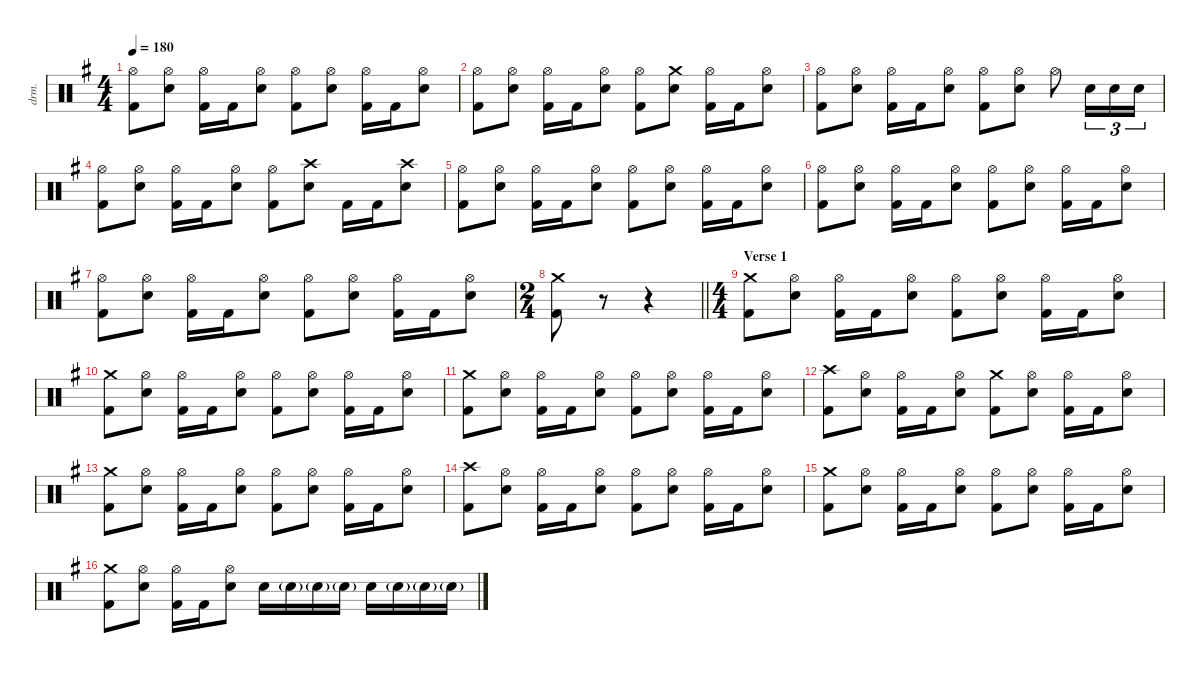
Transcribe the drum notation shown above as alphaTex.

\defaultSystemsLayout 4
\hideDynamics
\bracketExtendMode nobrackets
\otherSystemsTrackNameOrientation horizontal
\track ("Lars Ulrich" "drm.") {instrument percussion}
\staff {score}
\articulation defaults
\ts (4 4)
\tempo 180
\clef neutral
\ks eminor
("Hi-Hat (open)"{acc forcenatural} "Kick (hit) 2"{acc forcenatural}).8{dy f beam Down} ("Hi-Hat (open)"{acc forcenatural} "Snare (hit) 2"{acc forcenatural}).8{beam Down} ("Hi-Hat (open)"{acc forcenatural} "Kick (hit) 2"{acc forcenatural}).16{beam Down} "Kick (hit) 2"{acc forcenatural}.16{beam Down} ("Hi-Hat (open)"{acc forcenatural} "Snare (hit) 2"{acc forcenatural}).8{beam Down} ("Hi-Hat (open)"{acc forcenatural} "Kick (hit) 2"{acc forcenatural}).8{beam Down} ("Hi-Hat (open)"{acc forcenatural} "Snare (hit) 2"{acc forcenatural}).8{beam Down} ("Hi-Hat (open)"{acc forcenatural} "Kick (hit) 2"{acc forcenatural}).16{beam Down} "Kick (hit) 2"{acc forcenatural}.16{beam Down} ("Hi-Hat (open)"{acc forcenatural} "Snare (hit) 2"{acc forcenatural}).8{beam Down} |
("Hi-Hat (open)"{acc forcenatural} "Kick (hit) 2"{acc forcenatural}).8{beam Down} ("Hi-Hat (open)"{acc forcenatural} "Snare (hit) 2"{acc forcenatural}).8{beam Down} ("Hi-Hat (open)"{acc forcenatural} "Kick (hit) 2"{acc forcenatural}).16{beam Down} "Kick (hit) 2"{acc forcenatural}.16{beam Down} ("Hi-Hat (open)"{acc forcenatural} "Snare (hit) 2"{acc forcenatural}).8{beam Down} ("Hi-Hat (open)"{acc forcenatural} "Kick (hit) 2"{acc forcenatural}).8{beam Down} ("Crash medium (hit)"{acc forcenatural} "Snare (hit) 2"{acc forcenatural}).8{beam Down} ("Hi-Hat (open)"{acc forcenatural} "Kick (hit) 2"{acc forcenatural}).16{beam Down} "Kick (hit) 2"{acc forcenatural}.16{beam Down} ("Hi-Hat (open)"{acc forcenatural} "Snare (hit) 2"{acc forcenatural}).8{beam Down} |
("Hi-Hat (open)"{acc forcenatural} "Kick (hit) 2"{acc forcenatural}).8{beam Down} ("Hi-Hat (open)"{acc forcenatural} "Snare (hit) 2"{acc forcenatural}).8{beam Down} ("Hi-Hat (open)"{acc forcenatural} "Kick (hit) 2"{acc forcenatural}).16{beam Down} "Kick (hit) 2"{acc forcenatural}.16{beam Down} ("Hi-Hat (open)"{acc forcenatural} "Snare (hit) 2"{acc forcenatural}).8{beam Down} ("Hi-Hat (open)"{acc forcenatural} "Kick (hit) 2"{acc forcenatural}).8{beam Down} ("Hi-Hat (open)"{acc forcenatural} "Snare (hit) 2"{acc forcenatural}).8{beam Down} "Hi-Hat (open)"{acc forcenatural}.8{beam Down} "Snare (hit) 2"{acc forcenatural}.16{tu (3 2) beam Down} "Snare (hit) 2"{acc forcenatural}.16{tu (3 2) beam Down} "Snare (hit) 2"{acc forcenatural}.16{tu (3 2) beam Down} |
("Hi-Hat (open)"{acc forcenatural} "Kick (hit) 2"{acc forcenatural}).8{beam Down} ("Hi-Hat (open)"{acc forcenatural} "Snare (hit) 2"{acc forcenatural}).8{beam Down} ("Hi-Hat (open)"{acc forcenatural} "Kick (hit) 2"{acc forcenatural}).16{beam Down} "Kick (hit) 2"{acc forcenatural}.16{beam Down} ("Hi-Hat (open)"{acc forcenatural} "Snare (hit) 2"{acc forcenatural}).8{beam Down} ("Hi-Hat (open)"{acc forcenatural} "Kick (hit) 2"{acc forcenatural}).8{beam Down} ("Crash high (hit)"{acc forcenatural} "Snare (hit) 2"{acc forcenatural}).8{beam Down} "Kick (hit) 2"{acc forcenatural}.16{beam Down} "Kick (hit) 2"{acc forcenatural}.16{beam Down} ("Crash high (hit)"{acc forcenatural} "Snare (hit) 2"{acc forcenatural}).8{beam Down} |
("Hi-Hat (open)"{acc forcenatural} "Kick (hit) 2"{acc forcenatural}).8{beam Down} ("Hi-Hat (open)"{acc forcenatural} "Snare (hit) 2"{acc forcenatural}).8{beam Down} ("Hi-Hat (open)"{acc forcenatural} "Kick (hit) 2"{acc forcenatural}).16{beam Down} "Kick (hit) 2"{acc forcenatural}.16{beam Down} ("Hi-Hat (open)"{acc forcenatural} "Snare (hit) 2"{acc forcenatural}).8{beam Down} ("Hi-Hat (open)"{acc forcenatural} "Kick (hit) 2"{acc forcenatural}).8{beam Down} ("Hi-Hat (open)"{acc forcenatural} "Snare (hit) 2"{acc forcenatural}).8{beam Down} ("Hi-Hat (open)"{acc forcenatural} "Kick (hit) 2"{acc forcenatural}).16{beam Down} "Kick (hit) 2"{acc forcenatural}.16{beam Down} ("Hi-Hat (open)"{acc forcenatural} "Snare (hit) 2"{acc forcenatural}).8{beam Down} |
("Hi-Hat (open)"{acc forcenatural} "Kick (hit) 2"{acc forcenatural}).8{beam Down} ("Hi-Hat (open)"{acc forcenatural} "Snare (hit) 2"{acc forcenatural}).8{beam Down} ("Hi-Hat (open)"{acc forcenatural} "Kick (hit) 2"{acc forcenatural}).16{beam Down} "Kick (hit) 2"{acc forcenatural}.16{beam Down} ("Hi-Hat (open)"{acc forcenatural} "Snare (hit) 2"{acc forcenatural}).8{beam Down} ("Hi-Hat (open)"{acc forcenatural} "Kick (hit) 2"{acc forcenatural}).8{beam Down} ("Hi-Hat (open)"{acc forcenatural} "Snare (hit) 2"{acc forcenatural}).8{beam Down} ("Hi-Hat (open)"{acc forcenatural} "Kick (hit) 2"{acc forcenatural}).16{beam Down} "Kick (hit) 2"{acc forcenatural}.16{beam Down} ("Hi-Hat (open)"{acc forcenatural} "Snare (hit) 2"{acc forcenatural}).8{beam Down} |
("Hi-Hat (open)"{acc forcenatural} "Kick (hit) 2"{acc forcenatural}).8{beam Down} ("Hi-Hat (open)"{acc forcenatural} "Snare (hit) 2"{acc forcenatural}).8{beam Down} ("Hi-Hat (open)"{acc forcenatural} "Kick (hit) 2"{acc forcenatural}).16{beam Down} "Kick (hit) 2"{acc forcenatural}.16{beam Down} ("Hi-Hat (open)"{acc forcenatural} "Snare (hit) 2"{acc forcenatural}).8{beam Down} ("Hi-Hat (open)"{acc forcenatural} "Kick (hit) 2"{acc forcenatural}).8{beam Down} ("Hi-Hat (open)"{acc forcenatural} "Snare (hit) 2"{acc forcenatural}).8{beam Down} ("Hi-Hat (open)"{acc forcenatural} "Kick (hit) 2"{acc forcenatural}).16{beam Down} "Kick (hit) 2"{acc forcenatural}.16{beam Down} ("Hi-Hat (open)"{acc forcenatural} "Snare (hit) 2"{acc forcenatural}).8{beam Down} |
\ts (2 4)
\beaming (8 2 2 2 2)
\barLineRight lightlight
("Crash medium (hit)"{acc forcenatural} "Kick (hit) 2"{acc forcenatural}).8{beam Down} r.8{beam Down} r.4{beam Down} |
\ts (4 4)
\beaming (8 2 2 2 2)
\section ("" "Verse 1")
("Crash medium (hit)"{acc forcenatural} "Kick (hit) 2"{acc forcenatural}).8{beam Down} ("Hi-Hat (open)"{acc forcenatural} "Snare (hit) 2"{acc forcenatural}).8{beam Down} ("Hi-Hat (open)"{acc forcenatural} "Kick (hit) 2"{acc forcenatural}).16{beam Down} "Kick (hit) 2"{acc forcenatural}.16{beam Down} ("Hi-Hat (open)"{acc forcenatural} "Snare (hit) 2"{acc forcenatural}).8{beam Down} ("Hi-Hat (open)"{acc forcenatural} "Kick (hit) 2"{acc forcenatural}).8{beam Down} ("Hi-Hat (open)"{acc forcenatural} "Snare (hit) 2"{acc forcenatural}).8{beam Down} ("Hi-Hat (open)"{acc forcenatural} "Kick (hit) 2"{acc forcenatural}).16{beam Down} "Kick (hit) 2"{acc forcenatural}.16{beam Down} ("Hi-Hat (open)"{acc forcenatural} "Snare (hit) 2"{acc forcenatural}).8{beam Down} |
("Crash medium (hit)"{acc forcenatural} "Kick (hit) 2"{acc forcenatural}).8{beam Down} ("Hi-Hat (open)"{acc forcenatural} "Snare (hit) 2"{acc forcenatural}).8{beam Down} ("Hi-Hat (open)"{acc forcenatural} "Kick (hit) 2"{acc forcenatural}).16{beam Down} "Kick (hit) 2"{acc forcenatural}.16{beam Down} ("Hi-Hat (open)"{acc forcenatural} "Snare (hit) 2"{acc forcenatural}).8{beam Down} ("Hi-Hat (open)"{acc forcenatural} "Kick (hit) 2"{acc forcenatural}).8{beam Down} ("Hi-Hat (open)"{acc forcenatural} "Snare (hit) 2"{acc forcenatural}).8{beam Down} ("Hi-Hat (open)"{acc forcenatural} "Kick (hit) 2"{acc forcenatural}).16{beam Down} "Kick (hit) 2"{acc forcenatural}.16{beam Down} ("Hi-Hat (open)"{acc forcenatural} "Snare (hit) 2"{acc forcenatural}).8{beam Down} |
("Crash medium (hit)"{acc forcenatural} "Kick (hit) 2"{acc forcenatural}).8{beam Down} ("Hi-Hat (open)"{acc forcenatural} "Snare (hit) 2"{acc forcenatural}).8{beam Down} ("Hi-Hat (open)"{acc forcenatural} "Kick (hit) 2"{acc forcenatural}).16{beam Down} "Kick (hit) 2"{acc forcenatural}.16{beam Down} ("Hi-Hat (open)"{acc forcenatural} "Snare (hit) 2"{acc forcenatural}).8{beam Down} ("Hi-Hat (open)"{acc forcenatural} "Kick (hit) 2"{acc forcenatural}).8{beam Down} ("Hi-Hat (open)"{acc forcenatural} "Snare (hit) 2"{acc forcenatural}).8{beam Down} ("Hi-Hat (open)"{acc forcenatural} "Kick (hit) 2"{acc forcenatural}).16{beam Down} "Kick (hit) 2"{acc forcenatural}.16{beam Down} ("Hi-Hat (open)"{acc forcenatural} "Snare (hit) 2"{acc forcenatural}).8{beam Down} |
("Crash high (hit)"{acc forcenatural} "Kick (hit) 2"{acc forcenatural}).8{beam Down} ("Hi-Hat (open)"{acc forcenatural} "Snare (hit) 2"{acc forcenatural}).8{beam Down} ("Hi-Hat (open)"{acc forcenatural} "Kick (hit) 2"{acc forcenatural}).16{beam Down} "Kick (hit) 2"{acc forcenatural}.16{beam Down} ("Hi-Hat (open)"{acc forcenatural} "Snare (hit) 2"{acc forcenatural}).8{beam Down} ("Crash medium (hit)"{acc forcenatural} "Kick (hit) 2"{acc forcenatural}).8{beam Down} ("Hi-Hat (open)"{acc forcenatural} "Snare (hit) 2"{acc forcenatural}).8{beam Down} ("Hi-Hat (open)"{acc forcenatural} "Kick (hit) 2"{acc forcenatural}).16{beam Down} "Kick (hit) 2"{acc forcenatural}.16{beam Down} ("Hi-Hat (open)"{acc forcenatural} "Snare (hit) 2"{acc forcenatural}).8{beam Down} |
("Crash medium (hit)"{acc forcenatural} "Kick (hit) 2"{acc forcenatural}).8{beam Down} ("Hi-Hat (open)"{acc forcenatural} "Snare (hit) 2"{acc forcenatural}).8{beam Down} ("Hi-Hat (open)"{acc forcenatural} "Kick (hit) 2"{acc forcenatural}).16{beam Down} "Kick (hit) 2"{acc forcenatural}.16{beam Down} ("Hi-Hat (open)"{acc forcenatural} "Snare (hit) 2"{acc forcenatural}).8{beam Down} ("Hi-Hat (open)"{acc forcenatural} "Kick (hit) 2"{acc forcenatural}).8{beam Down} ("Hi-Hat (open)"{acc forcenatural} "Snare (hit) 2"{acc forcenatural}).8{beam Down} ("Hi-Hat (open)"{acc forcenatural} "Kick (hit) 2"{acc forcenatural}).16{beam Down} "Kick (hit) 2"{acc forcenatural}.16{beam Down} ("Hi-Hat (open)"{acc forcenatural} "Snare (hit) 2"{acc forcenatural}).8{beam Down} |
("Crash high (hit)"{acc forcenatural} "Kick (hit) 2"{acc forcenatural}).8{beam Down} ("Hi-Hat (open)"{acc forcenatural} "Snare (hit) 2"{acc forcenatural}).8{beam Down} ("Hi-Hat (open)"{acc forcenatural} "Kick (hit) 2"{acc forcenatural}).16{beam Down} "Kick (hit) 2"{acc forcenatural}.16{beam Down} ("Hi-Hat (open)"{acc forcenatural} "Snare (hit) 2"{acc forcenatural}).8{beam Down} ("Hi-Hat (open)"{acc forcenatural} "Kick (hit) 2"{acc forcenatural}).8{beam Down} ("Hi-Hat (open)"{acc forcenatural} "Snare (hit) 2"{acc forcenatural}).8{beam Down} ("Hi-Hat (open)"{acc forcenatural} "Kick (hit) 2"{acc forcenatural}).16{beam Down} "Kick (hit) 2"{acc forcenatural}.16{beam Down} ("Hi-Hat (open)"{acc forcenatural} "Snare (hit) 2"{acc forcenatural}).8{beam Down} |
("Crash medium (hit)"{acc forcenatural} "Kick (hit) 2"{acc forcenatural}).8{beam Down} ("Hi-Hat (open)"{acc forcenatural} "Snare (hit) 2"{acc forcenatural}).8{beam Down} ("Hi-Hat (open)"{acc forcenatural} "Kick (hit) 2"{acc forcenatural}).16{beam Down} "Kick (hit) 2"{acc forcenatural}.16{beam Down} ("Hi-Hat (open)"{acc forcenatural} "Snare (hit) 2"{acc forcenatural}).8{beam Down} ("Hi-Hat (open)"{acc forcenatural} "Kick (hit) 2"{acc forcenatural}).8{beam Down} ("Hi-Hat (open)"{acc forcenatural} "Snare (hit) 2"{acc forcenatural}).8{beam Down} ("Hi-Hat (open)"{acc forcenatural} "Kick (hit) 2"{acc forcenatural}).16{beam Down} "Kick (hit) 2"{acc forcenatural}.16{beam Down} ("Hi-Hat (open)"{acc forcenatural} "Snare (hit) 2"{acc forcenatural}).8{beam Down} |
("Crash medium (hit)"{acc forcenatural} "Kick (hit) 2"{acc forcenatural}).8{beam Down} ("Hi-Hat (open)"{acc forcenatural} "Snare (hit) 2"{acc forcenatural}).8{beam Down} ("Hi-Hat (open)"{acc forcenatural} "Kick (hit) 2"{acc forcenatural}).16{beam Down} "Kick (hit) 2"{acc forcenatural}.16{beam Down} ("Hi-Hat (open)"{acc forcenatural} "Snare (hit) 2"{acc forcenatural}).8{beam Down} "Snare (hit) 2"{acc forcenatural}.16{beam Down} "Snare (hit) 2"{g acc forcenatural}.16{dy ff beam Down} "Snare (hit) 2"{g acc forcenatural}.16{beam Down} "Snare (hit) 2"{g acc forcenatural}.16{beam Down} "Snare (hit) 2"{acc forcenatural}.16{dy f beam Down} "Snare (hit) 2"{g acc forcenatural}.16{dy ff beam Down} "Snare (hit) 2"{g acc forcenatural}.16{beam Down} "Snare (hit) 2"{g acc forcenatural}.16{beam Down}
